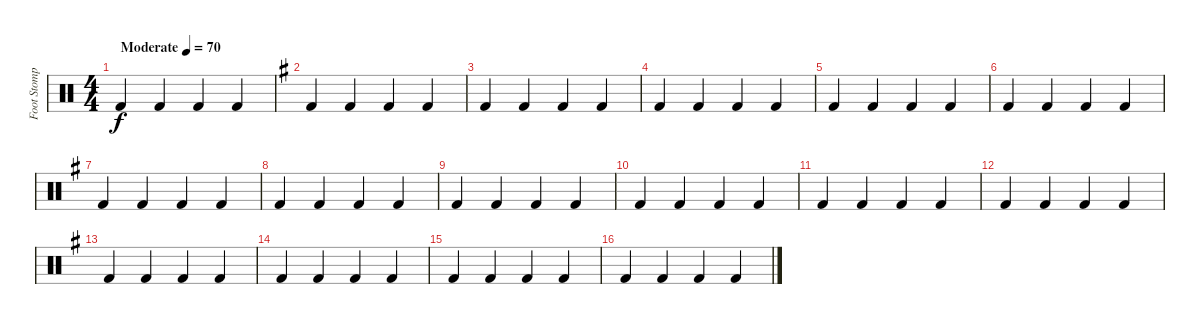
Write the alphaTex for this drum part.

\track ("Foot Stomp" "Foot Stomp") {instrument percussion}
\staff {score}
\articulation defaults
\ts (4 4)
\tempo (70 "Moderate")
\clef neutral
\ks c "Kick (hit) 2".4{dy f} "Kick (hit) 2".4 "Kick (hit) 2".4 "Kick (hit) 2".4
|
\ks eminor "Kick (hit) 2".4 "Kick (hit) 2".4 "Kick (hit) 2".4 "Kick (hit) 2".4
|
"Kick (hit) 2".4 "Kick (hit) 2".4 "Kick (hit) 2".4 "Kick (hit) 2".4 |
"Kick (hit) 2".4 "Kick (hit) 2".4 "Kick (hit) 2".4 "Kick (hit) 2".4 |
"Kick (hit) 2".4 "Kick (hit) 2".4 "Kick (hit) 2".4 "Kick (hit) 2".4 |
"Kick (hit) 2".4 "Kick (hit) 2".4 "Kick (hit) 2".4 "Kick (hit) 2".4 |
"Kick (hit) 2".4 "Kick (hit) 2".4 "Kick (hit) 2".4 "Kick (hit) 2".4 |
"Kick (hit) 2".4 "Kick (hit) 2".4 "Kick (hit) 2".4 "Kick (hit) 2".4 |
"Kick (hit) 2".4 "Kick (hit) 2".4 "Kick (hit) 2".4 "Kick (hit) 2".4 |
"Kick (hit) 2".4 "Kick (hit) 2".4 "Kick (hit) 2".4 "Kick (hit) 2".4 |
"Kick (hit) 2".4 "Kick (hit) 2".4 "Kick (hit) 2".4 "Kick (hit) 2".4 |
"Kick (hit) 2".4 "Kick (hit) 2".4 "Kick (hit) 2".4 "Kick (hit) 2".4 |
"Kick (hit) 2".4 "Kick (hit) 2".4 "Kick (hit) 2".4 "Kick (hit) 2".4 |
"Kick (hit) 2".4 "Kick (hit) 2".4 "Kick (hit) 2".4 "Kick (hit) 2".4 |
"Kick (hit) 2".4 "Kick (hit) 2".4 "Kick (hit) 2".4 "Kick (hit) 2".4 |
"Kick (hit) 2".4 "Kick (hit) 2".4 "Kick (hit) 2".4 "Kick (hit) 2".4
